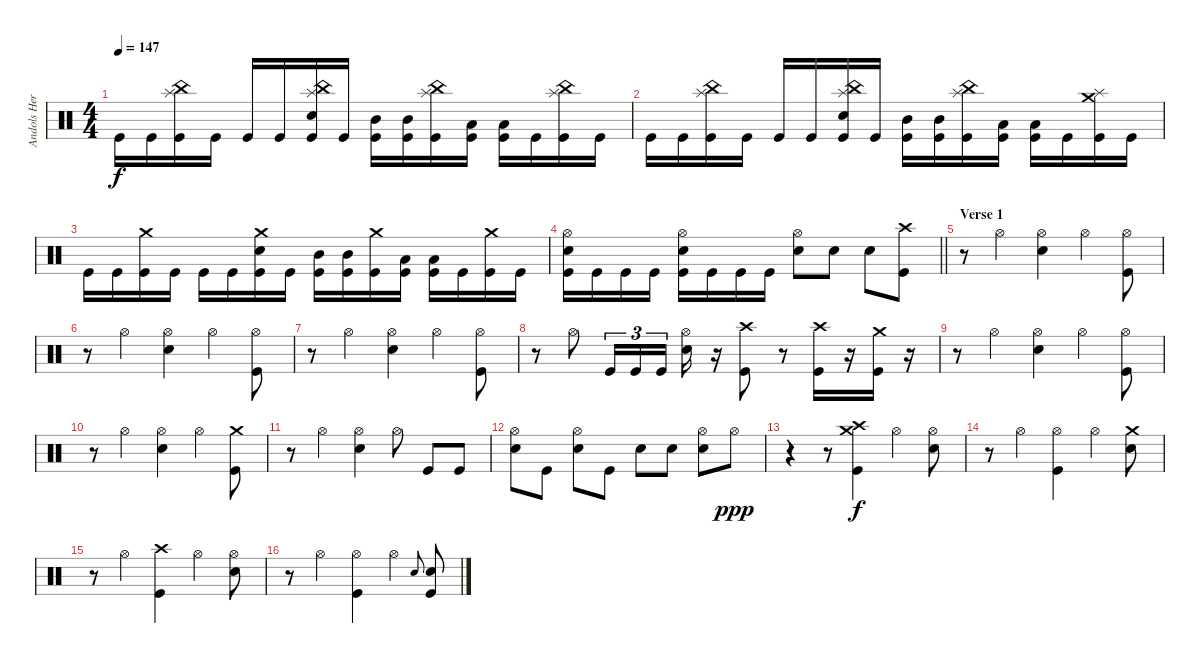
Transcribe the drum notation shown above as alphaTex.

\track ("Andols Herrick" "Andols Her") {instrument percussion}
\staff
\articulation defaults
\ts (4 4)
\tempo 147
\clef neutral
\ks c "Kick (hit)".16{dy f} "Kick (hit)".16
("China (hit)" "Splash (hit)" "Kick (hit)").16 "Kick (hit)".16 "Kick (hit)".16 "Kick (hit)".16 ("China (hit)" "Splash (hit)" "Electric Snare (hit)" "Kick (hit)").16 "Kick (hit)".16 ("Mid Tom (hit)" "Kick (hit)").16 ("Mid Tom (hit)" "Kick (hit)").16 ("China (hit)" "Splash (hit)" "Kick (hit)").16 ("Low Tom (hit)" "Kick (hit)").16 ("Low Tom (hit)" "Kick (hit)").16 "Kick (hit)".16 ("China (hit)" "Splash (hit)" "Kick (hit)").16 "Kick (hit)".16 |
"Kick (hit)".16 "Kick (hit)".16 ("China (hit)" "Splash (hit)" "Kick (hit)").16 "Kick (hit)".16 "Kick (hit)".16 "Kick (hit)".16 ("China (hit)" "Splash (hit)" "Electric Snare (hit)" "Kick (hit)").16 "Kick (hit)".16 ("Mid Tom (hit)" "Kick (hit)").16 ("Mid Tom (hit)" "Kick (hit)").16 ("China (hit)" "Splash (hit)" "Kick (hit)").16 ("Low Tom (hit)" "Kick (hit)").16 ("Low Tom (hit)" "Kick (hit)").16 "Kick (hit)".16 ("Crash medium (hit)" "Splash (hit)" "Kick (hit)").16 "Kick (hit)".16 |
"Kick (hit)".16 "Kick (hit)".16 ("Crash medium (hit)" "Kick (hit)").16 "Kick (hit)".16 "Kick (hit)".16 "Kick (hit)".16 ("Crash medium (hit)" "Electric Snare (hit)" "Kick (hit)").16 "Kick (hit)".16 ("Mid Tom (hit)" "Kick (hit)").16 ("Mid Tom (hit)" "Kick (hit)").16 ("Crash medium (hit)" "Kick (hit)").16 ("Low Tom (hit)" "Kick (hit)").16 ("Low Tom (hit)" "Kick (hit)").16 "Kick (hit)".16 ("Crash medium (hit)" "Kick (hit)").16 "Kick (hit)".16 |
\barLineRight lightlight
("Hi-Hat (open)" "Electric Snare (hit)" "Kick (hit)").16 "Kick (hit)".16 "Kick (hit)".16 "Kick (hit)".16 ("Hi-Hat (open)" "Electric Snare (hit)" "Kick (hit)").16 "Kick (hit)".16 "Kick (hit)".16 "Kick (hit)".16 ("Hi-Hat (open)" "Electric Snare (hit)").8 "Electric Snare (hit)".8 "Electric Snare (hit)".8 ("Crash high (hit)" "Kick (hit)").8 |
\section ("" "Verse 1")
r.8 "Hi-Hat (open)".4 ("Hi-Hat (open)" "Electric Snare (hit)").4 "Hi-Hat (open)".4 ("Hi-Hat (open)" "Kick (hit)").8 |
r.8 "Hi-Hat (open)".4 ("Hi-Hat (open)" "Electric Snare (hit)").4 "Hi-Hat (open)".4 ("Hi-Hat (open)" "Kick (hit)").8 |
r.8 "Hi-Hat (open)".4 ("Hi-Hat (open)" "Electric Snare (hit)").4 "Hi-Hat (open)".4 ("Hi-Hat (open)" "Kick (hit)").8 |
r.8 "Hi-Hat (open)".8 "Kick (hit)".16{tu (3 2)} "Kick (hit)".16{tu (3 2)} "Kick (hit)".16{tu (3 2) beam splitsecondary} ("Hi-Hat (open)" "Electric Snare (hit)").16 r.16 ("Crash high (hit)" "Kick (hit)").8 r.8 ("Crash high (hit)" "Kick (hit)").16 r.16 ("Crash medium (hit)" "Kick (hit)").16 r.16 |
r.8 "Hi-Hat (open)".4 ("Hi-Hat (open)" "Electric Snare (hit)").4 "Hi-Hat (open)".4 ("Hi-Hat (open)" "Kick (hit)").8 |
r.8 "Hi-Hat (open)".4 ("Hi-Hat (open)" "Electric Snare (hit)").4 "Hi-Hat (open)".4 ("Crash medium (hit)" "Kick (hit)").8 |
r.8 "Hi-Hat (open)".4 ("Hi-Hat (open)" "Electric Snare (hit)").4 "Hi-Hat (open)".8 "Kick (hit)".8 "Kick (hit)".8 |
("Hi-Hat (open)" "Electric Snare (hit)").8 "Kick (hit)".8 ("Hi-Hat (open)" "Electric Snare (hit)").8 "Kick (hit)".8 "Electric Snare (hit)".8 "Electric Snare (hit)".8 ("Hi-Hat (open)" "Electric Snare (hit)").8 "Hi-Hat (open)".8{dy ppp} |
r.4 r.8 ("Crash medium (hit)" "Crash high (hit)" "Kick (hit)").4{dy f} "Hi-Hat (open)".4 ("Hi-Hat (open)" "Electric Snare (hit)").8 |
r.8 "Hi-Hat (open)".4 ("Hi-Hat (open)" "Kick (hit)").4 "Hi-Hat (open)".4 ("Crash medium (hit)" "Electric Snare (hit)").8 |
r.8 "Hi-Hat (open)".4 ("Crash high (hit)" "Kick (hit)").4 "Hi-Hat (open)".4 ("Hi-Hat (open)" "Electric Snare (hit)").8 |
r.8 "Hi-Hat (open)".4 ("Hi-Hat (open)" "Kick (hit)").4 "Hi-Hat (open)".4 "Electric Snare (hit)".8{gr onbeat} ("Electric Snare (hit)" "Kick (hit)").8
